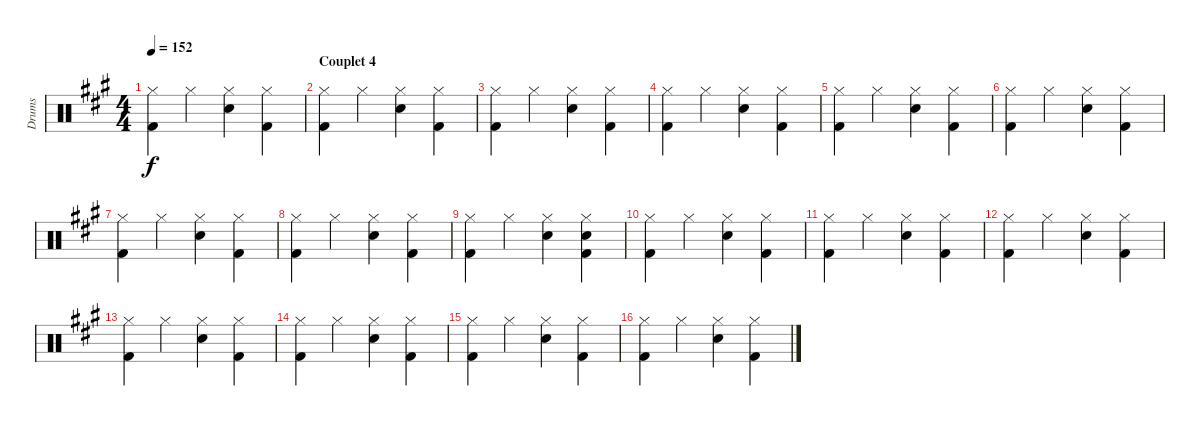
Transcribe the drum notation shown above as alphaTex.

\track ("Drums" "Drums") {instrument percussion}
\staff {score}
\articulation defaults
\ts (4 4)
\tempo 152
\clef neutral
\ks a
("Hi-Hat (closed)" "Kick (hit) 2").4{dy f} "Hi-Hat (closed)".4 ("Hi-Hat (closed)" "Electric Snare (hit)").4 ("Hi-Hat (closed)" "Kick (hit) 2").4 |
\section ("" "Couplet 4")
("Hi-Hat (closed)" "Kick (hit) 2").4 "Hi-Hat (closed)".4 ("Hi-Hat (closed)" "Electric Snare (hit)").4 ("Hi-Hat (closed)" "Kick (hit) 2").4 |
("Hi-Hat (closed)" "Kick (hit) 2").4 "Hi-Hat (closed)".4 ("Hi-Hat (closed)" "Electric Snare (hit)").4 ("Hi-Hat (closed)" "Kick (hit) 2").4 |
("Hi-Hat (closed)" "Kick (hit) 2").4 "Hi-Hat (closed)".4 ("Hi-Hat (closed)" "Electric Snare (hit)").4 ("Hi-Hat (closed)" "Kick (hit) 2").4 |
("Hi-Hat (closed)" "Kick (hit) 2").4 "Hi-Hat (closed)".4 ("Hi-Hat (closed)" "Electric Snare (hit)").4 ("Hi-Hat (closed)" "Kick (hit) 2").4 |
("Hi-Hat (closed)" "Kick (hit) 2").4 "Hi-Hat (closed)".4 ("Hi-Hat (closed)" "Electric Snare (hit)").4 ("Hi-Hat (closed)" "Kick (hit) 2").4 |
("Hi-Hat (closed)" "Kick (hit) 2").4 "Hi-Hat (closed)".4 ("Hi-Hat (closed)" "Electric Snare (hit)").4 ("Hi-Hat (closed)" "Kick (hit) 2").4 |
("Hi-Hat (closed)" "Kick (hit) 2").4 "Hi-Hat (closed)".4 ("Hi-Hat (closed)" "Electric Snare (hit)").4 ("Hi-Hat (closed)" "Kick (hit) 2").4 |
("Hi-Hat (closed)" "Kick (hit) 2").4 "Hi-Hat (closed)".4 ("Hi-Hat (closed)" "Electric Snare (hit)").4 ("Hi-Hat (closed)" "Electric Snare (hit)" "Kick (hit) 2").4 |
("Hi-Hat (closed)" "Kick (hit) 2").4 "Hi-Hat (closed)".4 ("Hi-Hat (closed)" "Electric Snare (hit)").4 ("Hi-Hat (closed)" "Kick (hit) 2").4 |
("Hi-Hat (closed)" "Kick (hit) 2").4 "Hi-Hat (closed)".4 ("Hi-Hat (closed)" "Electric Snare (hit)").4 ("Hi-Hat (closed)" "Kick (hit) 2").4 |
("Hi-Hat (closed)" "Kick (hit) 2").4 "Hi-Hat (closed)".4 ("Hi-Hat (closed)" "Electric Snare (hit)").4 ("Hi-Hat (closed)" "Kick (hit) 2").4 |
("Hi-Hat (closed)" "Kick (hit) 2").4 "Hi-Hat (closed)".4 ("Hi-Hat (closed)" "Electric Snare (hit)").4 ("Hi-Hat (closed)" "Kick (hit) 2").4 |
("Hi-Hat (closed)" "Kick (hit) 2").4 "Hi-Hat (closed)".4 ("Hi-Hat (closed)" "Electric Snare (hit)").4 ("Hi-Hat (closed)" "Kick (hit) 2").4 |
("Hi-Hat (closed)" "Kick (hit) 2").4 "Hi-Hat (closed)".4 ("Hi-Hat (closed)" "Electric Snare (hit)").4 ("Hi-Hat (closed)" "Kick (hit) 2").4 |
("Hi-Hat (closed)" "Kick (hit) 2").4 "Hi-Hat (closed)".4 ("Hi-Hat (closed)" "Electric Snare (hit)").4 ("Hi-Hat (closed)" "Kick (hit) 2").4
